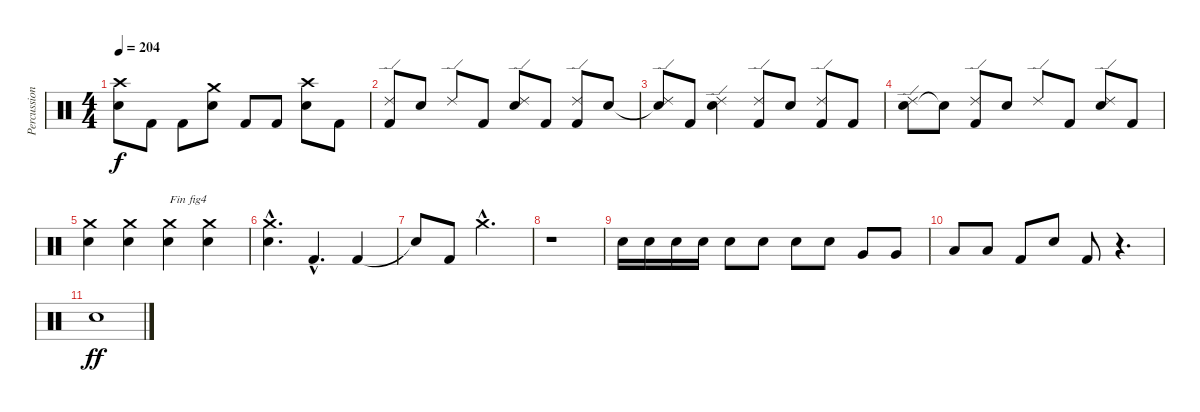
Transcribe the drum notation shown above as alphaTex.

\track ("Percussions" "Percussion") {instrument percussion}
\staff {score}
\articulation defaults
\ts (4 4)
\tempo 204
\clef neutral
\ks c
("Electric Snare (hit)" "Crash high (hit)").8{dy f} "Kick (hit) 2".8 "Kick (hit) 2".8 ("Electric Snare (hit)" "Crash medium (hit)").8 "Kick (hit) 2".8 "Kick (hit) 2".8 ("Electric Snare (hit)" "Crash high (hit)").8 "Kick (hit) 2".8 |
("Kick (hit) 2" "Ride (edge) 2").8 "Electric Snare (hit)".8 "Ride (edge) 2".8 "Kick (hit) 2".8 ("Electric Snare (hit)" "Ride (edge) 2").8 "Kick (hit) 2".8 ("Kick (hit) 2" "Ride (edge) 2").8 "Electric Snare (hit)".8 |
("Snare (hit)"{t} "Ride (edge) 2").8 "Kick (hit) 2".8 ("Electric Snare (hit)" "Ride (edge) 2").4 ("Kick (hit) 2" "Ride (edge) 2").8 "Electric Snare (hit)".8 ("Kick (hit) 2" "Ride (edge) 2").8 "Kick (hit) 2".8 |
("Electric Snare (hit)" "Ride (edge) 2").8 "Snare (hit)"{t}.8 ("Kick (hit) 2" "Ride (edge) 2").8 "Electric Snare (hit)".8 "Ride (edge) 2".8 "Kick (hit) 2".8 ("Electric Snare (hit)" "Ride (edge) 2").8 "Kick (hit) 2".8 |
("Electric Snare (hit)" "Crash medium (hit)").4 ("Electric Snare (hit)" "Crash medium (hit)").4 ("Electric Snare (hit)" "Crash medium (hit)").4{txt "Fin fig4"} ("Electric Snare (hit)" "Crash medium (hit)").4 |
("Electric Snare (hit)"{hac} "Crash medium (hit)"{hac}).4{d} "Kick (hit) 2"{hac}.4{d} "Kick (hit) 2".4 |
"Snare (hit)"{t}.8 "Kick (hit) 2".8 "Crash medium (hit)"{hac}.2{d} |
r.1 |
"Electric Snare (hit)".16 "Electric Snare (hit)".16 "Electric Snare (hit)".16 "Electric Snare (hit)".16 "Electric Snare (hit)".8 "Electric Snare (hit)".8 "Electric Snare (hit)".8 "Electric Snare (hit)".8 "Very Low Tom (hit)".8 "Very Low Tom (hit)".8 |
"Low Floor Tom (hit)".8 "Low Floor Tom (hit)".8 "Kick (hit) 2".8 "Electric Snare (hit)".8 "Kick (hit) 2".8 r.4{d} |
"Electric Snare (hit)".1{dy ff}
